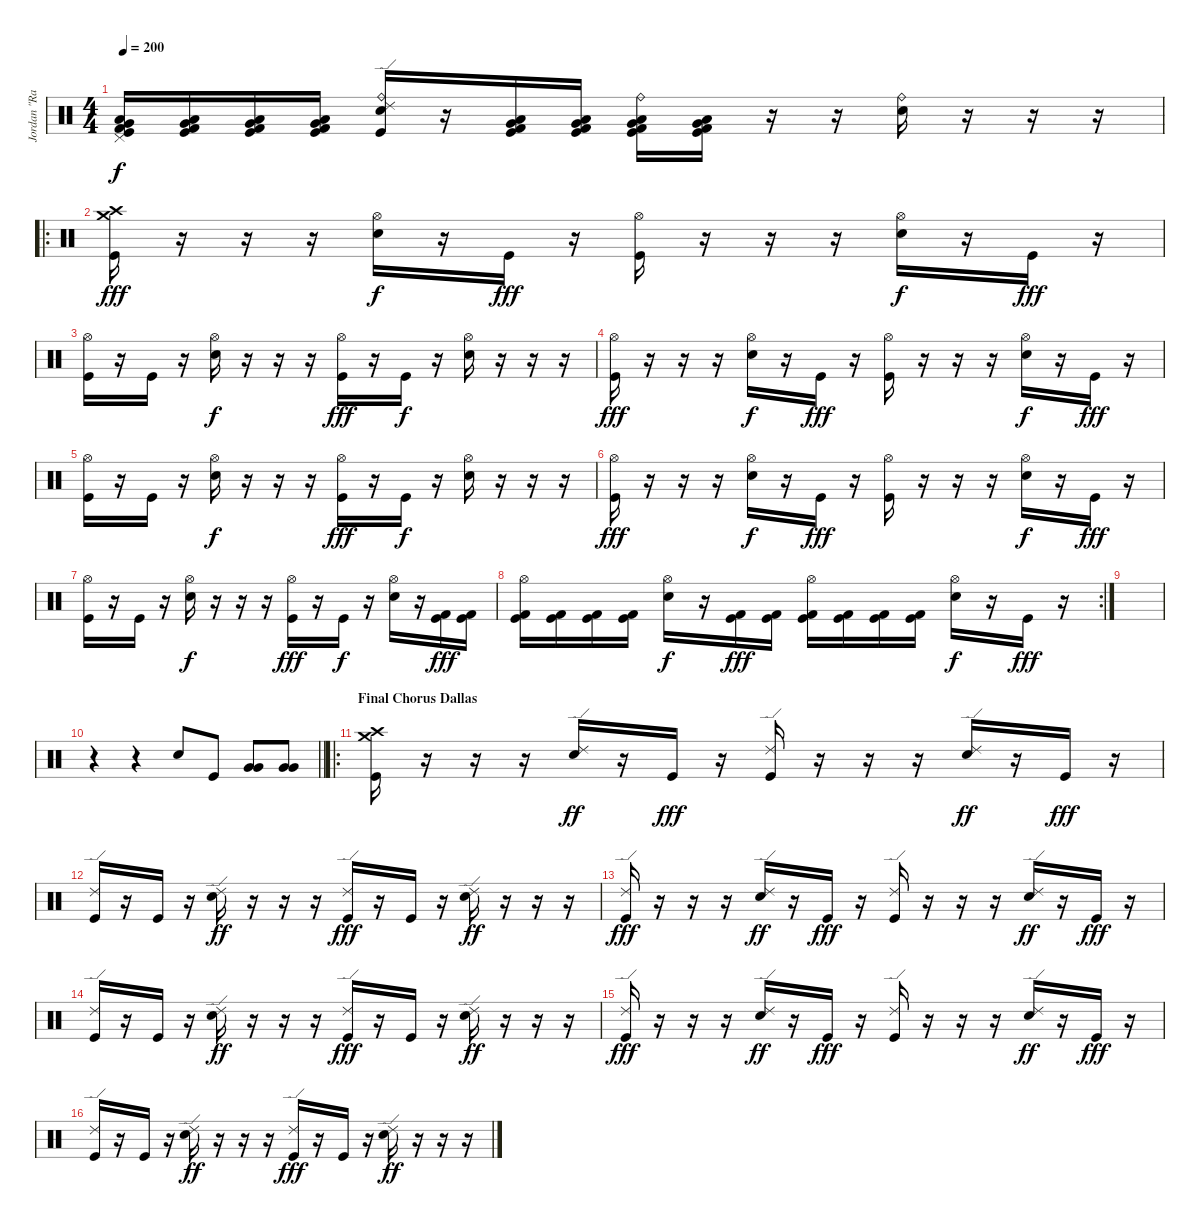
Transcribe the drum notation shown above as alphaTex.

\track ("Jordan \"Ratbeard\" Hastings" "Jordan \"Ra") {instrument percussion}
\staff {score}
\articulation defaults
\ts (4 4)
\tempo 200
\clef neutral
\ks c
("Pedal Hi-Hat (hit)" "Low Tom (hit)" "Kick (hit) 2" "Very Low Tom (hit)" "Kick (hit)").16{dy f} ("Low Tom (hit)" "Kick (hit) 2" "Very Low Tom (hit)" "Kick (hit)").16 ("Low Tom (hit)" "Kick (hit) 2" "Very Low Tom (hit)" "Kick (hit)").16 ("Low Tom (hit)" "Kick (hit) 2" "Very Low Tom (hit)" "Kick (hit)").16 ("Ride (edge) 2" "Ride (bell)" "Electric Snare (hit)" "Kick (hit)").16 r.16 ("Low Tom (hit)" "Kick (hit) 2" "Very Low Tom (hit)" "Kick (hit)").16 ("Low Tom (hit)" "Kick (hit) 2" "Very Low Tom (hit)" "Kick (hit)").16 ("Ride (bell)" "Low Tom (hit)" "Kick (hit) 2" "Very Low Tom (hit)" "Kick (hit)").16 ("Low Tom (hit)" "Kick (hit) 2" "Very Low Tom (hit)" "Kick (hit)").16 r.16 r.16 ("Ride (bell)" "Electric Snare (hit)").16 r.16 r.16 r.16 |
\ro
("Crash medium (hit)" "Crash high (hit)" "Kick (hit)").16{dy fff} r.16 r.16 r.16 ("Hi-Hat (open)" "Electric Snare (hit)").16{dy f} r.16 "Kick (hit)".16{dy fff} r.16 ("Hi-Hat (open)" "Kick (hit)").16 r.16 r.16 r.16 ("Hi-Hat (open)" "Electric Snare (hit)").16{dy f} r.16 "Kick (hit)".16{dy fff} r.16 |
("Hi-Hat (open)" "Kick (hit)").16 r.16 "Kick (hit)".16 r.16 ("Hi-Hat (open)" "Electric Snare (hit)").16{dy f} r.16 r.16 r.16 ("Hi-Hat (open)" "Kick (hit)").16{dy fff} r.16 "Kick (hit)".16{dy f} r.16 ("Hi-Hat (open)" "Electric Snare (hit)").16 r.16 r.16 r.16 |
("Hi-Hat (open)" "Kick (hit)").16{dy fff} r.16 r.16 r.16 ("Hi-Hat (open)" "Electric Snare (hit)").16{dy f} r.16 "Kick (hit)".16{dy fff} r.16 ("Hi-Hat (open)" "Kick (hit)").16 r.16 r.16 r.16 ("Hi-Hat (open)" "Electric Snare (hit)").16{dy f} r.16 "Kick (hit)".16{dy fff} r.16 |
("Hi-Hat (open)" "Kick (hit)").16 r.16 "Kick (hit)".16 r.16 ("Hi-Hat (open)" "Electric Snare (hit)").16{dy f} r.16 r.16 r.16 ("Hi-Hat (open)" "Kick (hit)").16{dy fff} r.16 "Kick (hit)".16{dy f} r.16 ("Hi-Hat (open)" "Electric Snare (hit)").16 r.16 r.16 r.16 |
("Hi-Hat (open)" "Kick (hit)").16{dy fff} r.16 r.16 r.16 ("Hi-Hat (open)" "Electric Snare (hit)").16{dy f} r.16 "Kick (hit)".16{dy fff} r.16 ("Hi-Hat (open)" "Kick (hit)").16 r.16 r.16 r.16 ("Hi-Hat (open)" "Electric Snare (hit)").16{dy f} r.16 "Kick (hit)".16{dy fff} r.16 |
("Hi-Hat (open)" "Kick (hit)").16 r.16 "Kick (hit)".16 r.16 ("Hi-Hat (open)" "Electric Snare (hit)").16{dy f} r.16 r.16 r.16 ("Hi-Hat (open)" "Kick (hit)").16{dy fff} r.16 "Kick (hit)".16{dy f} r.16 ("Hi-Hat (open)" "Electric Snare (hit)").16 r.16 ("Kick (hit) 2" "Kick (hit)").16{dy fff} ("Kick (hit) 2" "Kick (hit)").16 |
\rc 2
("Hi-Hat (open)" "Kick (hit) 2" "Kick (hit)").16 ("Kick (hit) 2" "Kick (hit)").16 ("Kick (hit) 2" "Kick (hit)").16 ("Kick (hit) 2" "Kick (hit)").16 ("Hi-Hat (open)" "Electric Snare (hit)").16{dy f} r.16 ("Kick (hit) 2" "Kick (hit)").16{dy fff} ("Kick (hit) 2" "Kick (hit)").16 ("Hi-Hat (open)" "Kick (hit) 2" "Kick (hit)").16 ("Kick (hit) 2" "Kick (hit)").16 ("Kick (hit) 2" "Kick (hit)").16 ("Kick (hit) 2" "Kick (hit)").16 ("Hi-Hat (open)" "Electric Snare (hit)").16{dy f} r.16 "Kick (hit)".16{dy fff} r.16 |
|
\barLineRight lightlight
r.4 r.4 "Electric Snare (hit)".8 "Kick (hit)".8 ("Very Low Tom (hit)" "Very Low Tom (hit)").8 ("Very Low Tom (hit)" "Very Low Tom (hit)").8 |
\ro
\section ("" "Final Chorus Dallas")
("Crash high (hit)" "Crash medium (hit)" "Kick (hit)").16 r.16 r.16 r.16 ("Ride (edge) 2" "Electric Snare (hit)").16{dy ff} r.16 "Kick (hit)".16{dy fff} r.16 ("Ride (edge) 2" "Kick (hit)").16 r.16 r.16 r.16 ("Ride (edge) 2" "Electric Snare (hit)").16{dy ff} r.16 "Kick (hit)".16{dy fff} r.16 |
("Ride (edge) 2" "Kick (hit)").16 r.16 "Kick (hit)".16 r.16 ("Ride (edge) 2" "Electric Snare (hit)").16{dy ff} r.16 r.16 r.16 ("Ride (edge) 2" "Kick (hit)").16{dy fff} r.16 "Kick (hit)".16 r.16 ("Ride (edge) 2" "Electric Snare (hit)").16{dy ff} r.16 r.16 r.16 |
("Ride (edge) 2" "Kick (hit)").16{dy fff} r.16 r.16 r.16 ("Ride (edge) 2" "Electric Snare (hit)").16{dy ff} r.16 "Kick (hit)".16{dy fff} r.16 ("Ride (edge) 2" "Kick (hit)").16 r.16 r.16 r.16 ("Ride (edge) 2" "Electric Snare (hit)").16{dy ff} r.16 "Kick (hit)".16{dy fff} r.16 |
("Ride (edge) 2" "Kick (hit)").16 r.16 "Kick (hit)".16 r.16 ("Ride (edge) 2" "Electric Snare (hit)").16{dy ff} r.16 r.16 r.16 ("Ride (edge) 2" "Kick (hit)").16{dy fff} r.16 "Kick (hit)".16 r.16 ("Ride (edge) 2" "Electric Snare (hit)").16{dy ff} r.16 r.16 r.16 |
("Ride (edge) 2" "Kick (hit)").16{dy fff} r.16 r.16 r.16 ("Ride (edge) 2" "Electric Snare (hit)").16{dy ff} r.16 "Kick (hit)".16{dy fff} r.16 ("Ride (edge) 2" "Kick (hit)").16 r.16 r.16 r.16 ("Ride (edge) 2" "Electric Snare (hit)").16{dy ff} r.16 "Kick (hit)".16{dy fff} r.16 |
("Ride (edge) 2" "Kick (hit)").16 r.16 "Kick (hit)".16 r.16 ("Ride (edge) 2" "Electric Snare (hit)").16{dy ff} r.16 r.16 r.16 ("Ride (edge) 2" "Kick (hit)").16{dy fff} r.16 "Kick (hit)".16 r.16 ("Ride (edge) 2" "Electric Snare (hit)").16{dy ff} r.16 r.16 r.16
